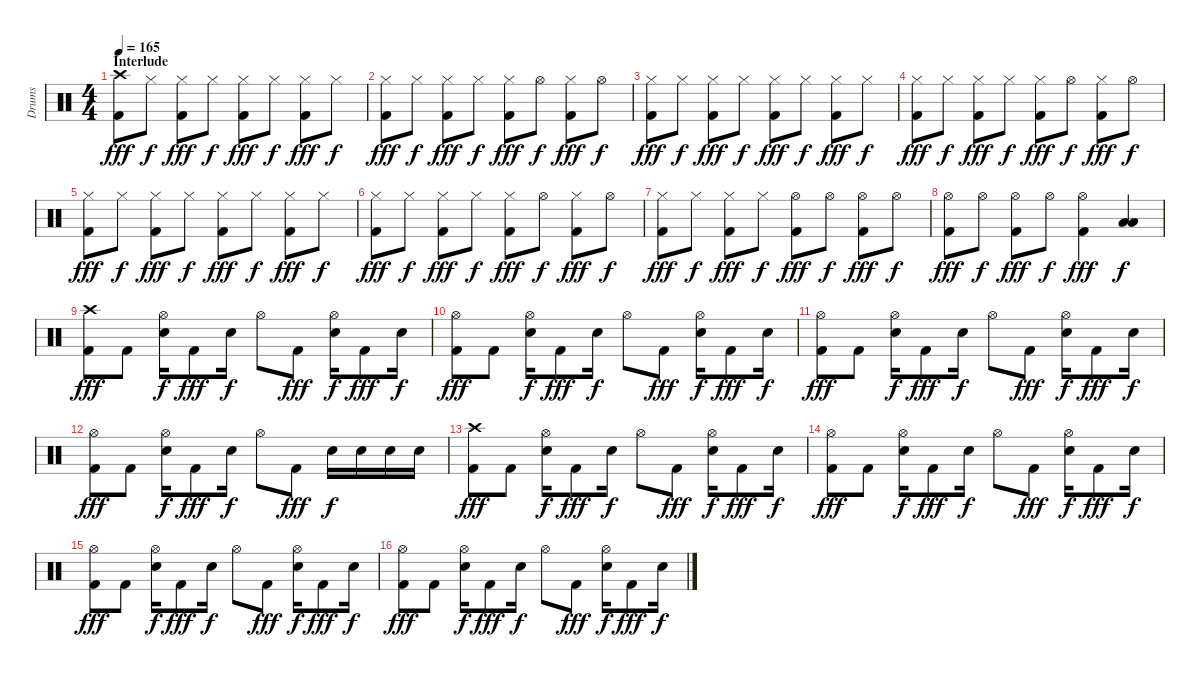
\track ("Drums" "Drums") {instrument percussion}
\staff {score}
\articulation defaults
\ts (4 4)
\section ("" "Interlude")
\tempo 165
\clef neutral
\ks c
("Crash high (hit)" "Kick (hit) 2").8{dy fff} "Hi-Hat (closed)".8{dy f} ("Hi-Hat (closed)" "Kick (hit) 2").8{dy fff} "Hi-Hat (closed)".8{dy f} ("Hi-Hat (closed)" "Kick (hit) 2").8{dy fff} "Hi-Hat (closed)".8{dy f} ("Hi-Hat (closed)" "Kick (hit) 2").8{dy fff} "Hi-Hat (closed)".8{dy f} |
("Hi-Hat (closed)" "Kick (hit) 2").8{dy fff} "Hi-Hat (closed)".8{dy f} ("Hi-Hat (closed)" "Kick (hit) 2").8{dy fff} "Hi-Hat (closed)".8{dy f} ("Hi-Hat (closed)" "Kick (hit) 2").8{dy fff} "Hi-Hat (open)".8{dy f} ("Hi-Hat (closed)" "Kick (hit) 2").8{dy fff} "Hi-Hat (open)".8{dy f} |
("Hi-Hat (closed)" "Kick (hit) 2").8{dy fff} "Hi-Hat (closed)".8{dy f} ("Hi-Hat (closed)" "Kick (hit) 2").8{dy fff} "Hi-Hat (closed)".8{dy f} ("Hi-Hat (closed)" "Kick (hit) 2").8{dy fff} "Hi-Hat (closed)".8{dy f} ("Hi-Hat (closed)" "Kick (hit) 2").8{dy fff} "Hi-Hat (closed)".8{dy f} |
("Hi-Hat (closed)" "Kick (hit) 2").8{dy fff} "Hi-Hat (closed)".8{dy f} ("Hi-Hat (closed)" "Kick (hit) 2").8{dy fff} "Hi-Hat (closed)".8{dy f} ("Hi-Hat (closed)" "Kick (hit) 2").8{dy fff} "Hi-Hat (open)".8{dy f} ("Hi-Hat (closed)" "Kick (hit) 2").8{dy fff} "Hi-Hat (open)".8{dy f} |
("Hi-Hat (closed)" "Kick (hit) 2").8{dy fff} "Hi-Hat (closed)".8{dy f} ("Hi-Hat (closed)" "Kick (hit) 2").8{dy fff} "Hi-Hat (closed)".8{dy f} ("Hi-Hat (closed)" "Kick (hit) 2").8{dy fff} "Hi-Hat (closed)".8{dy f} ("Hi-Hat (closed)" "Kick (hit) 2").8{dy fff} "Hi-Hat (closed)".8{dy f} |
("Hi-Hat (closed)" "Kick (hit) 2").8{dy fff} "Hi-Hat (closed)".8{dy f} ("Hi-Hat (closed)" "Kick (hit) 2").8{dy fff} "Hi-Hat (closed)".8{dy f} ("Hi-Hat (closed)" "Kick (hit) 2").8{dy fff} "Hi-Hat (open)".8{dy f} ("Hi-Hat (closed)" "Kick (hit) 2").8{dy fff} "Hi-Hat (open)".8{dy f} |
("Hi-Hat (closed)" "Kick (hit) 2").8{dy fff} "Hi-Hat (closed)".8{dy f} ("Hi-Hat (closed)" "Kick (hit) 2").8{dy fff} "Hi-Hat (closed)".8{dy f} ("Hi-Hat (open)" "Kick (hit) 2").8{dy fff} "Hi-Hat (open)".8{dy f} ("Hi-Hat (open)" "Kick (hit) 2").8{dy fff} "Hi-Hat (open)".8{dy f} |
("Hi-Hat (open)" "Kick (hit) 2").8{dy fff} "Hi-Hat (open)".8{dy f} ("Hi-Hat (open)" "Kick (hit) 2").8{dy fff} "Hi-Hat (open)".8{dy f} ("Hi-Hat (open)" "Kick (hit) 2").4{dy fff} ("Low Tom (hit)" "Low Floor Tom (hit)").4{dy f} |
("Crash high (hit)" "Kick (hit) 2").8{dy fff} "Kick (hit) 2".8 ("Hi-Hat (open)" "Snare (hit) 2").16{dy f} "Kick (hit) 2".8{dy fff} "Snare (hit) 2".16{dy f} "Hi-Hat (open)".8 "Kick (hit) 2".8{dy fff} ("Hi-Hat (open)" "Snare (hit) 2").16{dy f} "Kick (hit) 2".8{dy fff} "Snare (hit) 2".16{dy f} |
("Hi-Hat (open)" "Kick (hit) 2").8{dy fff} "Kick (hit) 2".8 ("Hi-Hat (open)" "Snare (hit) 2").16{dy f} "Kick (hit) 2".8{dy fff} "Snare (hit) 2".16{dy f} "Hi-Hat (open)".8 "Kick (hit) 2".8{dy fff} ("Hi-Hat (open)" "Snare (hit) 2").16{dy f} "Kick (hit) 2".8{dy fff} "Snare (hit) 2".16{dy f} |
("Hi-Hat (open)" "Kick (hit) 2").8{dy fff} "Kick (hit) 2".8 ("Hi-Hat (open)" "Snare (hit) 2").16{dy f} "Kick (hit) 2".8{dy fff} "Snare (hit) 2".16{dy f} "Hi-Hat (open)".8 "Kick (hit) 2".8{dy fff} ("Hi-Hat (open)" "Snare (hit) 2").16{dy f} "Kick (hit) 2".8{dy fff} "Snare (hit) 2".16{dy f} |
("Hi-Hat (open)" "Kick (hit) 2").8{dy fff} "Kick (hit) 2".8 ("Hi-Hat (open)" "Snare (hit) 2").16{dy f} "Kick (hit) 2".8{dy fff} "Snare (hit) 2".16{dy f} "Hi-Hat (open)".8 "Kick (hit) 2".8{dy fff} "Snare (hit) 2".16{dy f} "Snare (hit) 2".16 "Snare (hit) 2".16 "Snare (hit) 2".16 |
("Crash high (hit)" "Kick (hit) 2").8{dy fff} "Kick (hit) 2".8 ("Hi-Hat (open)" "Snare (hit) 2").16{dy f} "Kick (hit) 2".8{dy fff} "Snare (hit) 2".16{dy f} "Hi-Hat (open)".8 "Kick (hit) 2".8{dy fff} ("Hi-Hat (open)" "Snare (hit) 2").16{dy f} "Kick (hit) 2".8{dy fff} "Snare (hit) 2".16{dy f} |
("Hi-Hat (open)" "Kick (hit) 2").8{dy fff} "Kick (hit) 2".8 ("Hi-Hat (open)" "Snare (hit) 2").16{dy f} "Kick (hit) 2".8{dy fff} "Snare (hit) 2".16{dy f} "Hi-Hat (open)".8 "Kick (hit) 2".8{dy fff} ("Hi-Hat (open)" "Snare (hit) 2").16{dy f} "Kick (hit) 2".8{dy fff} "Snare (hit) 2".16{dy f} |
("Hi-Hat (open)" "Kick (hit) 2").8{dy fff} "Kick (hit) 2".8 ("Hi-Hat (open)" "Snare (hit) 2").16{dy f} "Kick (hit) 2".8{dy fff} "Snare (hit) 2".16{dy f} "Hi-Hat (open)".8 "Kick (hit) 2".8{dy fff} ("Hi-Hat (open)" "Snare (hit) 2").16{dy f} "Kick (hit) 2".8{dy fff} "Snare (hit) 2".16{dy f} |
("Hi-Hat (open)" "Kick (hit) 2").8{dy fff} "Kick (hit) 2".8 ("Hi-Hat (open)" "Snare (hit) 2").16{dy f} "Kick (hit) 2".8{dy fff} "Snare (hit) 2".16{dy f} "Hi-Hat (open)".8 "Kick (hit) 2".8{dy fff} ("Hi-Hat (open)" "Snare (hit) 2").16{dy f} "Kick (hit) 2".8{dy fff} "Snare (hit) 2".16{dy f}
